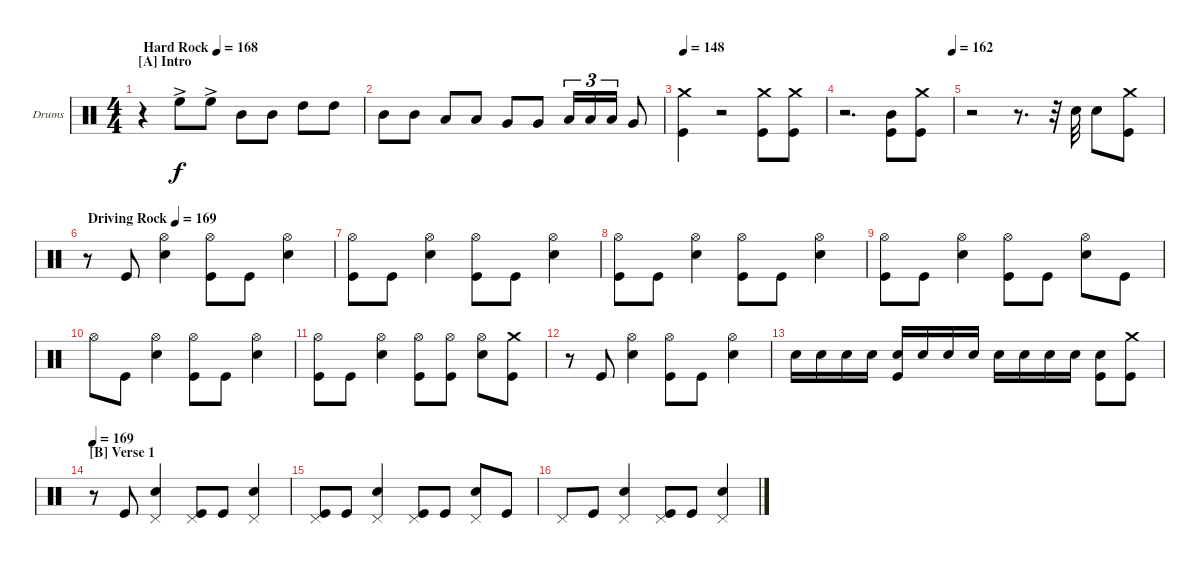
\bracketExtendMode groupsimilarinstruments
\firstSystemTrackNameOrientation horizontal
\otherSystemsTrackNameOrientation horizontal
\track ("Vinny Appice" "Drums") {instrument percussion}
\staff {score}
\articulation defaults
\ts (4 4)
\beaming (8 2 2 2 2)
\section ("A" "Intro")
\tempo (168 "Hard Rock")
\clef neutral
\ks c
r.4{dy f} "High Floor Tom (hit)"{ac}.8 "High Floor Tom (hit)"{ac}.8 "Mid Tom (hit)".8 "Mid Tom (hit)".8 "High Tom (hit)".8 "High Tom (hit)".8 |
"Mid Tom (hit)".8 "Mid Tom (hit)".8 "Low Tom (hit)".8 "Low Tom (hit)".8 "Very Low Tom (hit)".8 "Very Low Tom (hit)".8 "Low Tom (hit)".16{tu (3 2)} "Low Tom (hit)".16{tu (3 2)} "Low Tom (hit)".16{tu (3 2)} "Very Low Tom (hit)".8 |
\tempo 148
("Crash medium (hit)" "Kick (hit)").4 r.2 ("Crash medium (hit)" "Kick (hit)").8 ("Crash medium (hit)" "Kick (hit)").8 |
\tempo (162 1)
r.2{d} ("Kick (hit)" "Mid Tom (hit)").8 ("Crash medium (hit)" "Kick (hit)").8 |
r.2 r.8{d} r.32 "Snare (hit) 2".32 "Snare (hit) 2".8 ("Crash medium (hit)" "Kick (hit)").8 |
\tempo (169 "Driving Rock")
r.8 "Kick (hit)".8 ("Hi-Hat (open)" "Snare (hit) 2").4 ("Hi-Hat (open)" "Kick (hit)").8 "Kick (hit)".8 ("Hi-Hat (open)" "Snare (hit) 2").4 |
("Hi-Hat (open)" "Kick (hit)").8 "Kick (hit)".8 ("Hi-Hat (open)" "Snare (hit) 2").4 ("Hi-Hat (open)" "Kick (hit)").8 "Kick (hit)".8 ("Hi-Hat (open)" "Snare (hit) 2").4 |
("Hi-Hat (open)" "Kick (hit)").8 "Kick (hit)".8 ("Hi-Hat (open)" "Snare (hit) 2").4 ("Hi-Hat (open)" "Kick (hit)").8 "Kick (hit)".8 ("Hi-Hat (open)" "Snare (hit) 2").4 |
("Hi-Hat (open)" "Kick (hit)").8 "Kick (hit)".8 ("Hi-Hat (open)" "Snare (hit) 2").4 ("Hi-Hat (open)" "Kick (hit)").8 "Kick (hit)".8 ("Hi-Hat (open)" "Snare (hit) 2").8 "Kick (hit)".8 |
"Hi-Hat (open)".8 "Kick (hit)".8 ("Hi-Hat (open)" "Snare (hit) 2").4 ("Hi-Hat (open)" "Kick (hit)").8 "Kick (hit)".8 ("Hi-Hat (open)" "Snare (hit) 2").4 |
("Hi-Hat (open)" "Kick (hit)").8 "Kick (hit)".8 ("Hi-Hat (open)" "Snare (hit) 2").4 ("Hi-Hat (open)" "Kick (hit)").8 ("Hi-Hat (open)" "Kick (hit)").8 ("Hi-Hat (open)" "Snare (hit) 2").8 ("Crash medium (hit)" "Kick (hit)").8 |
r.8 "Kick (hit)".8 ("Hi-Hat (open)" "Snare (hit) 2").4 ("Hi-Hat (open)" "Kick (hit)").8 "Kick (hit)".8 ("Hi-Hat (open)" "Snare (hit) 2").4 |
"Snare (hit) 2".16 "Snare (hit) 2".16 "Snare (hit) 2".16 "Snare (hit) 2".16 ("Kick (hit)" "Snare (hit) 2").16 "Snare (hit) 2".16 "Snare (hit) 2".16 "Snare (hit) 2".16 "Snare (hit) 2".16 "Snare (hit) 2".16 "Snare (hit) 2".16 "Snare (hit) 2".16 ("Kick (hit)" "Snare (hit) 2").8 ("Crash medium (hit)" "Kick (hit)").8 |
\section ("B" "Verse 1")
\tempo 169
r.8 "Kick (hit)".8 ("Pedal Hi-Hat (hit)" "Snare (hit) 2").4 ("Pedal Hi-Hat (hit)" "Kick (hit)").8 "Kick (hit)".8 ("Pedal Hi-Hat (hit)" "Snare (hit) 2").4 |
("Pedal Hi-Hat (hit)" "Kick (hit)").8 "Kick (hit)".8 ("Pedal Hi-Hat (hit)" "Snare (hit) 2").4 ("Pedal Hi-Hat (hit)" "Kick (hit)").8 "Kick (hit)".8 ("Pedal Hi-Hat (hit)" "Snare (hit) 2").8 "Kick (hit)".8 |
"Pedal Hi-Hat (hit)".8 "Kick (hit)".8 ("Pedal Hi-Hat (hit)" "Snare (hit) 2").4 ("Pedal Hi-Hat (hit)" "Kick (hit)").8 "Kick (hit)".8 ("Pedal Hi-Hat (hit)" "Snare (hit) 2").4
